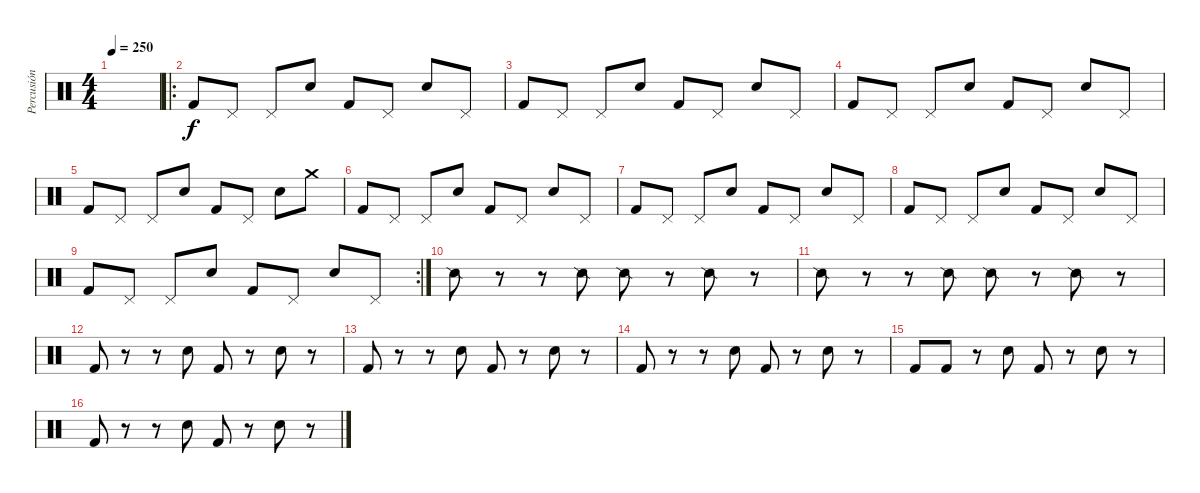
\track ("Percusión" "Percusión") {instrument percussion}
\staff {score}
\articulation defaults
\ts (4 4)
\tempo 250
\clef neutral
\ks c
|
\ro "Kick (hit) 2".8 "Pedal Hi-Hat (hit)".8 "Pedal Hi-Hat (hit)".8 "Electric Snare (hit)".8 "Kick (hit) 2".8 "Pedal Hi-Hat (hit)".8 "Electric Snare (hit)".8 "Pedal Hi-Hat (hit)".8
|
"Kick (hit) 2".8 "Pedal Hi-Hat (hit)".8 "Pedal Hi-Hat (hit)".8 "Electric Snare (hit)".8 "Kick (hit) 2".8 "Pedal Hi-Hat (hit)".8 "Electric Snare (hit)".8 "Pedal Hi-Hat (hit)".8 |
"Kick (hit) 2".8 "Pedal Hi-Hat (hit)".8 "Pedal Hi-Hat (hit)".8 "Electric Snare (hit)".8 "Kick (hit) 2".8 "Pedal Hi-Hat (hit)".8 "Electric Snare (hit)".8 "Pedal Hi-Hat (hit)".8 |
"Kick (hit) 2".8 "Pedal Hi-Hat (hit)".8 "Pedal Hi-Hat (hit)".8 "Electric Snare (hit)".8 "Kick (hit) 2".8 "Pedal Hi-Hat (hit)".8 "Electric Snare (hit)".8 "Crash medium (hit)".8 |
"Kick (hit) 2".8 "Pedal Hi-Hat (hit)".8 "Pedal Hi-Hat (hit)".8 "Electric Snare (hit)".8 "Kick (hit) 2".8 "Pedal Hi-Hat (hit)".8 "Electric Snare (hit)".8 "Pedal Hi-Hat (hit)".8 |
"Kick (hit) 2".8 "Pedal Hi-Hat (hit)".8 "Pedal Hi-Hat (hit)".8 "Electric Snare (hit)".8 "Kick (hit) 2".8 "Pedal Hi-Hat (hit)".8 "Electric Snare (hit)".8 "Pedal Hi-Hat (hit)".8 |
"Kick (hit) 2".8 "Pedal Hi-Hat (hit)".8 "Pedal Hi-Hat (hit)".8 "Electric Snare (hit)".8 "Kick (hit) 2".8 "Pedal Hi-Hat (hit)".8 "Electric Snare (hit)".8 "Pedal Hi-Hat (hit)".8 |
\rc 2 "Kick (hit) 2".8 "Pedal Hi-Hat (hit)".8 "Pedal Hi-Hat (hit)".8 "Electric Snare (hit)".8 "Kick (hit) 2".8 "Pedal Hi-Hat (hit)".8 "Electric Snare (hit)".8 "Pedal Hi-Hat (hit)".8
|
"Snare (side stick) 2".8 r.8 r.8 "Snare (side stick) 2".8 "Snare (side stick) 2".8 r.8 "Snare (side stick) 2".8 r.8 |
"Snare (side stick) 2".8 r.8 r.8 "Snare (side stick) 2".8 "Snare (side stick) 2".8 r.8 "Snare (side stick) 2".8 r.8 |
"Kick (hit) 2".8 r.8 r.8 "Electric Snare (hit)".8 "Kick (hit) 2".8 r.8 "Electric Snare (hit)".8 r.8 |
"Kick (hit) 2".8 r.8 r.8 "Electric Snare (hit)".8 "Kick (hit) 2".8 r.8 "Electric Snare (hit)".8 r.8 |
"Kick (hit) 2".8 r.8 r.8 "Electric Snare (hit)".8 "Kick (hit) 2".8 r.8 "Electric Snare (hit)".8 r.8 |
"Kick (hit) 2".8 "Kick (hit) 2".8 r.8 "Electric Snare (hit)".8 "Kick (hit) 2".8 r.8 "Electric Snare (hit)".8 r.8 |
"Kick (hit) 2".8 r.8 r.8 "Electric Snare (hit)".8 "Kick (hit) 2".8 r.8 "Electric Snare (hit)".8 r.8
